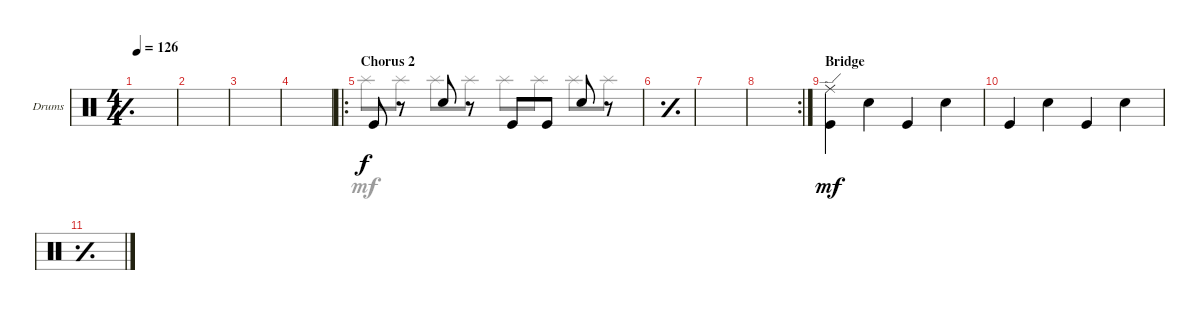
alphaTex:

\defaultSystemsLayout 4
\bracketExtendMode groupsimilarinstruments
\firstSystemTrackNameOrientation horizontal
\otherSystemsTrackNameOrientation horizontal
\track ("Drumkit" "Drums") {instrument percussion}
\staff {score}
\articulation defaults
\voice
\ts (4 4)
\tempo 126
\clef neutral
\simile simple
\ks c
|
|
|
|
\ro
\section ("" "Chorus 2")
\simile none "Kick (hit)".8
r.8 "Snare (hit) 2".8 r.8 "Kick (hit)".8 "Kick (hit)".8 "Snare (hit) 2".8 r.8 |
\simile simple
|
|
\rc 2
|
\section ("" "Bridge")
\simile none
("Kick (hit)" "Ride (edge)").4{dy mf} "Snare (hit) 2".4 "Kick (hit)".4 "Snare (hit) 2".4 |
"Kick (hit)".4 "Snare (hit) 2".4 "Kick (hit)".4 "Snare (hit) 2".4 |
\simile simple
|
|
|
|
|
\voice
\clef neutral
\ottava regular
\simile simple
\ks c
|
|
|
|
\simile none "Splash (hit)".8 "Splash (hit)".8 "Splash (hit)".8 "Splash (hit)".8 "Splash (hit)".8 "Splash (hit)".8 "Splash (hit)".8 "Splash (hit)".8
|
\simile simple
|
|
|
\simile none
|
|
\simile simple
|
|
|
|
|
